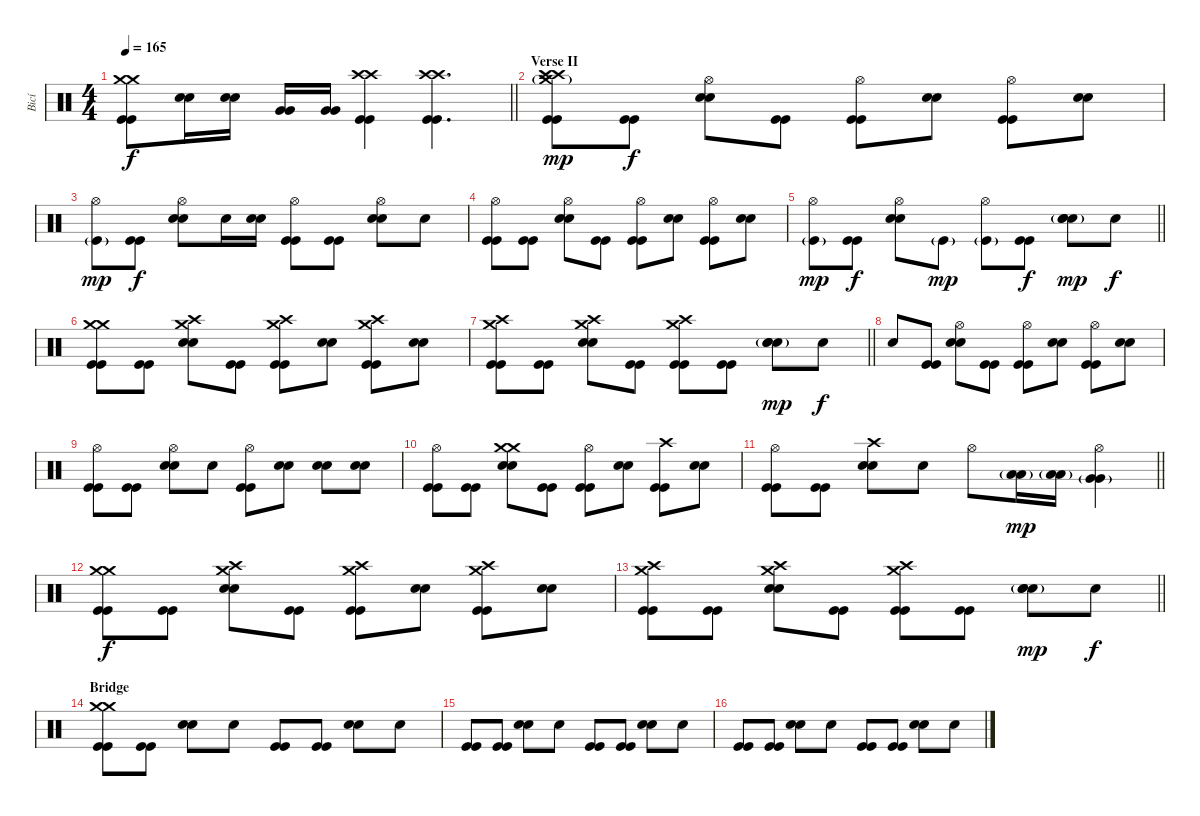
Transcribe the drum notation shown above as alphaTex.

\track ("Bicí" "Bicí") {instrument percussion}
\staff {score}
\articulation defaults
\ts (4 4)
\tempo 165
\clef neutral
\barLineRight lightlight
\ks c
("Crash medium (hit)" "Crash medium (hit)" "Kick (hit)" "Kick (hit)").8{dy f} ("Electric Snare (hit)" "Electric Snare (hit)").16 ("Electric Snare (hit)" "Electric Snare (hit)").16 ("Very Low Tom (hit)" "Very Low Tom (hit)").16 ("Very Low Tom (hit)" "Very Low Tom (hit)").16 ("Crash high (hit)" "Crash high (hit)" "Kick (hit)" "Kick (hit)").4 ("Crash high (hit)" "Crash high (hit)" "Kick (hit)" "Kick (hit)").4{d} |
\section ("" "Verse II")
("Crash high (hit)" "Crash high (hit)" "Crash medium (hit)"{g} "Kick (hit)" "Kick (hit)").8{dy mp} ("Kick (hit)" "Kick (hit)").8{dy f} ("Hi-Hat (open)" "Electric Snare (hit)" "Electric Snare (hit)").8 ("Kick (hit)" "Kick (hit)").8 ("Hi-Hat (open)" "Kick (hit)" "Kick (hit)").8 ("Electric Snare (hit)" "Electric Snare (hit)").8 ("Hi-Hat (open)" "Kick (hit)" "Kick (hit)").8 ("Electric Snare (hit)" "Electric Snare (hit)").8 |
("Hi-Hat (open)" "Kick (hit)"{g}).8{dy mp} ("Kick (hit)" "Kick (hit)").8{dy f} ("Hi-Hat (open)" "Electric Snare (hit)" "Electric Snare (hit)").8 "Snare (hit)".16 ("Electric Snare (hit)" "Electric Snare (hit)").16 ("Hi-Hat (open)" "Kick (hit)" "Kick (hit)").8 ("Kick (hit)" "Kick (hit)").8 ("Hi-Hat (open)" "Electric Snare (hit)" "Electric Snare (hit)").8 "Snare (hit)".8 |
("Hi-Hat (open)" "Kick (hit)" "Kick (hit)").8 ("Kick (hit)" "Kick (hit)").8 ("Hi-Hat (open)" "Electric Snare (hit)" "Electric Snare (hit)").8 ("Kick (hit)" "Kick (hit)").8 ("Hi-Hat (open)" "Kick (hit)" "Kick (hit)").8 ("Electric Snare (hit)" "Electric Snare (hit)").8 ("Hi-Hat (open)" "Kick (hit)" "Kick (hit)").8 ("Electric Snare (hit)" "Electric Snare (hit)").8 |
\barLineRight lightlight
("Hi-Hat (open)" "Kick (hit)"{g}).8{dy mp} ("Kick (hit)" "Kick (hit)").8{dy f} ("Hi-Hat (open)" "Electric Snare (hit)" "Electric Snare (hit)").8 "Kick (hit)"{g}.8{dy mp} ("Hi-Hat (open)" "Kick (hit)"{g}).8 ("Kick (hit)" "Kick (hit)").8{dy f} ("Snare (hit) 2"{g} "Electric Snare (hit)" "Electric Snare (hit)").8{dy mp} "Snare (hit)".8{dy f} |
("Crash medium (hit)" "Crash medium (hit)" "Kick (hit)" "Kick (hit)").8 ("Kick (hit)" "Kick (hit)").8 ("Crash high (hit)" "Crash medium (hit)" "Electric Snare (hit)" "Electric Snare (hit)").8 ("Kick (hit)" "Kick (hit)").8 ("Crash high (hit)" "Crash medium (hit)" "Kick (hit)" "Kick (hit)").8 ("Electric Snare (hit)" "Electric Snare (hit)").8 ("Crash high (hit)" "Crash medium (hit)" "Kick (hit)" "Kick (hit)").8 ("Electric Snare (hit)" "Electric Snare (hit)").8 |
\barLineRight lightlight
("Crash high (hit)" "Crash medium (hit)" "Kick (hit)" "Kick (hit)").8 ("Kick (hit)" "Kick (hit)").8 ("Crash high (hit)" "Crash medium (hit)" "Electric Snare (hit)" "Electric Snare (hit)").8 ("Kick (hit)" "Kick (hit)").8 ("Crash high (hit)" "Crash medium (hit)" "Kick (hit)" "Kick (hit)").8 ("Kick (hit)" "Kick (hit)").8 ("Snare (hit) 2"{g} "Electric Snare (hit)" "Electric Snare (hit)").8{dy mp} "Snare (hit)".8{dy f} |
"Snare (hit)".8 ("Kick (hit)" "Kick (hit)").8 ("Hi-Hat (open)" "Electric Snare (hit)" "Electric Snare (hit)").8 ("Kick (hit)" "Kick (hit)").8 ("Hi-Hat (open)" "Kick (hit)" "Kick (hit)").8 ("Electric Snare (hit)" "Electric Snare (hit)").8 ("Hi-Hat (open)" "Kick (hit)" "Kick (hit)").8 ("Electric Snare (hit)" "Electric Snare (hit)").8 |
("Hi-Hat (open)" "Kick (hit)" "Kick (hit)").8 ("Kick (hit)" "Kick (hit)").8 ("Hi-Hat (open)" "Electric Snare (hit)" "Electric Snare (hit)").8 "Snare (hit)".8 ("Hi-Hat (open)" "Kick (hit)" "Kick (hit)").8 ("Electric Snare (hit)" "Electric Snare (hit)").8 ("Electric Snare (hit)" "Electric Snare (hit)").8 ("Electric Snare (hit)" "Electric Snare (hit)").8 |
("Hi-Hat (open)" "Kick (hit)" "Kick (hit)").8 ("Kick (hit)" "Kick (hit)").8 ("Crash medium (hit)" "Crash medium (hit)" "Electric Snare (hit)" "Electric Snare (hit)").8 ("Kick (hit)" "Kick (hit)").8 ("Hi-Hat (open)" "Kick (hit)" "Kick (hit)").8 ("Electric Snare (hit)" "Electric Snare (hit)").8 ("Crash high (hit)" "Kick (hit)" "Kick (hit)").8 ("Electric Snare (hit)" "Electric Snare (hit)").8 |
\barLineRight lightlight
("Hi-Hat (open)" "Kick (hit)" "Kick (hit)").8 ("Kick (hit)" "Kick (hit)").8 ("Crash high (hit)" "Electric Snare (hit)" "Electric Snare (hit)").8 "Snare (hit)".8 "Hi-Hat (open)".8 ("Low Tom (hit)"{g} "Low Tom (hit)").16{dy mp} ("Low Tom (hit)"{g} "Low Tom (hit)").16 ("Hi-Hat (open)" "Very Low Tom (hit)"{g} "Very Low Tom (hit)").4 |
("Crash medium (hit)" "Crash medium (hit)" "Kick (hit)" "Kick (hit)").8{dy f} ("Kick (hit)" "Kick (hit)").8 ("Crash high (hit)" "Crash medium (hit)" "Electric Snare (hit)" "Electric Snare (hit)").8 ("Kick (hit)" "Kick (hit)").8 ("Crash high (hit)" "Crash medium (hit)" "Kick (hit)" "Kick (hit)").8 ("Electric Snare (hit)" "Electric Snare (hit)").8 ("Crash high (hit)" "Crash medium (hit)" "Kick (hit)" "Kick (hit)").8 ("Electric Snare (hit)" "Electric Snare (hit)").8 |
\barLineRight lightlight
("Crash high (hit)" "Crash medium (hit)" "Kick (hit)" "Kick (hit)").8 ("Kick (hit)" "Kick (hit)").8 ("Crash high (hit)" "Crash medium (hit)" "Electric Snare (hit)" "Electric Snare (hit)").8 ("Kick (hit)" "Kick (hit)").8 ("Crash high (hit)" "Crash medium (hit)" "Kick (hit)" "Kick (hit)").8 ("Kick (hit)" "Kick (hit)").8 ("Snare (hit) 2"{g} "Electric Snare (hit)" "Electric Snare (hit)").8{dy mp} "Snare (hit)".8{dy f} |
\section ("" "Bridge")
("Crash medium (hit)" "Crash medium (hit)" "Kick (hit)" "Kick (hit)").8 ("Kick (hit)" "Kick (hit)").8 ("Electric Snare (hit)" "Electric Snare (hit)").8 "Snare (hit)".8 ("Kick (hit)" "Kick (hit)").8 ("Kick (hit)" "Kick (hit)").8 ("Electric Snare (hit)" "Electric Snare (hit)").8 "Snare (hit)".8 |
("Kick (hit)" "Kick (hit)").8 ("Kick (hit)" "Kick (hit)").8 ("Electric Snare (hit)" "Electric Snare (hit)").8 "Snare (hit)".8 ("Kick (hit)" "Kick (hit)").8 ("Kick (hit)" "Kick (hit)").8 ("Electric Snare (hit)" "Electric Snare (hit)").8 "Snare (hit)".8 |
("Kick (hit)" "Kick (hit)").8 ("Kick (hit)" "Kick (hit)").8 ("Electric Snare (hit)" "Electric Snare (hit)").8 "Snare (hit)".8 ("Kick (hit)" "Kick (hit)").8 ("Kick (hit)" "Kick (hit)").8 ("Electric Snare (hit)" "Electric Snare (hit)").8 "Snare (hit)".8
